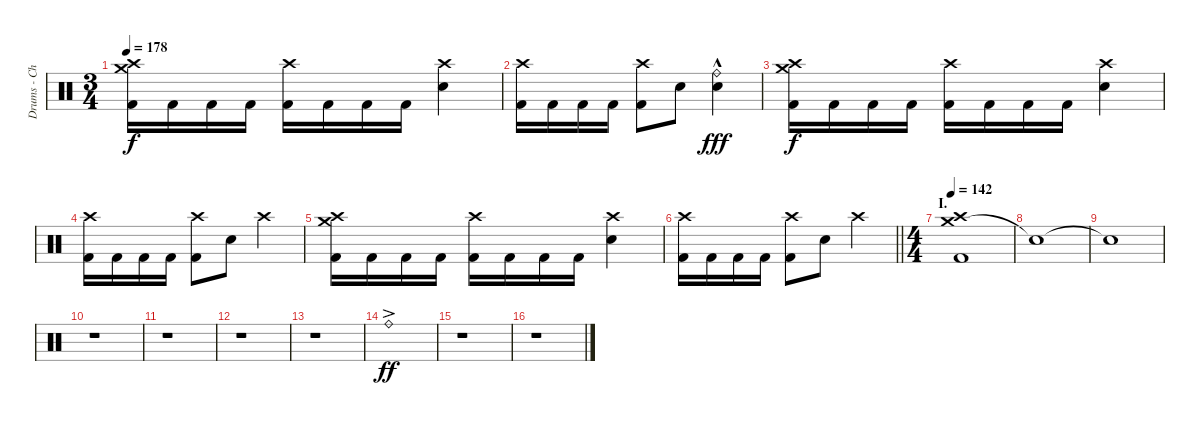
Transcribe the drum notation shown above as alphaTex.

\track ("Drums - Christopher Hornbrook" "Drums - Ch") {instrument percussion}
\staff {score}
\articulation defaults
\ts (3 4)
\tempo 178
\clef neutral
\ks c
("Crash medium (hit)" "Crash high (hit)" "Kick (hit) 2").16{dy f} "Kick (hit) 2".16 "Kick (hit) 2".16 "Kick (hit) 2".16 ("Crash high (hit)" "Kick (hit) 2").16 "Kick (hit) 2".16 "Kick (hit) 2".16 "Kick (hit) 2".16 ("Crash high (hit)" "Electric Snare (hit)").4 |
("Crash high (hit)" "Kick (hit) 2").16 "Kick (hit) 2".16 "Kick (hit) 2".16 "Kick (hit) 2".16 ("Crash high (hit)" "Kick (hit) 2").8 "Electric Snare (hit)".8 ("Ride (bell)"{hac} "Electric Snare (hit)").4{dy fff} |
("Crash medium (hit)" "Crash high (hit)" "Kick (hit) 2").16{dy f} "Kick (hit) 2".16 "Kick (hit) 2".16 "Kick (hit) 2".16 ("Crash high (hit)" "Kick (hit) 2").16 "Kick (hit) 2".16 "Kick (hit) 2".16 "Kick (hit) 2".16 ("Crash high (hit)" "Electric Snare (hit)").4 |
("Crash high (hit)" "Kick (hit) 2").16 "Kick (hit) 2".16 "Kick (hit) 2".16 "Kick (hit) 2".16 ("Crash high (hit)" "Kick (hit) 2").8 "Electric Snare (hit)".8 "Crash high (hit)".4 |
("Crash medium (hit)" "Crash high (hit)" "Kick (hit) 2").16 "Kick (hit) 2".16 "Kick (hit) 2".16 "Kick (hit) 2".16 ("Crash high (hit)" "Kick (hit) 2").16 "Kick (hit) 2".16 "Kick (hit) 2".16 "Kick (hit) 2".16 ("Crash high (hit)" "Electric Snare (hit)").4 |
\barLineRight lightlight
("Crash high (hit)" "Kick (hit) 2").16 "Kick (hit) 2".16 "Kick (hit) 2".16 "Kick (hit) 2".16 ("Crash high (hit)" "Kick (hit) 2").8 "Electric Snare (hit)".8 "Crash high (hit)".4 |
\ts (4 4)
\section ("" "I.")
\tempo 142
("Crash medium (hit)" "Crash high (hit)" "Kick (hit) 2").1 |
"Snare (hit)"{t}.1 |
"Snare (hit)"{t}.1 |
r.1 |
r.1 |
r.1 |
r.1 |
"Ride (bell)"{ac}.1{dy ff} |
r.1 |
r.1
